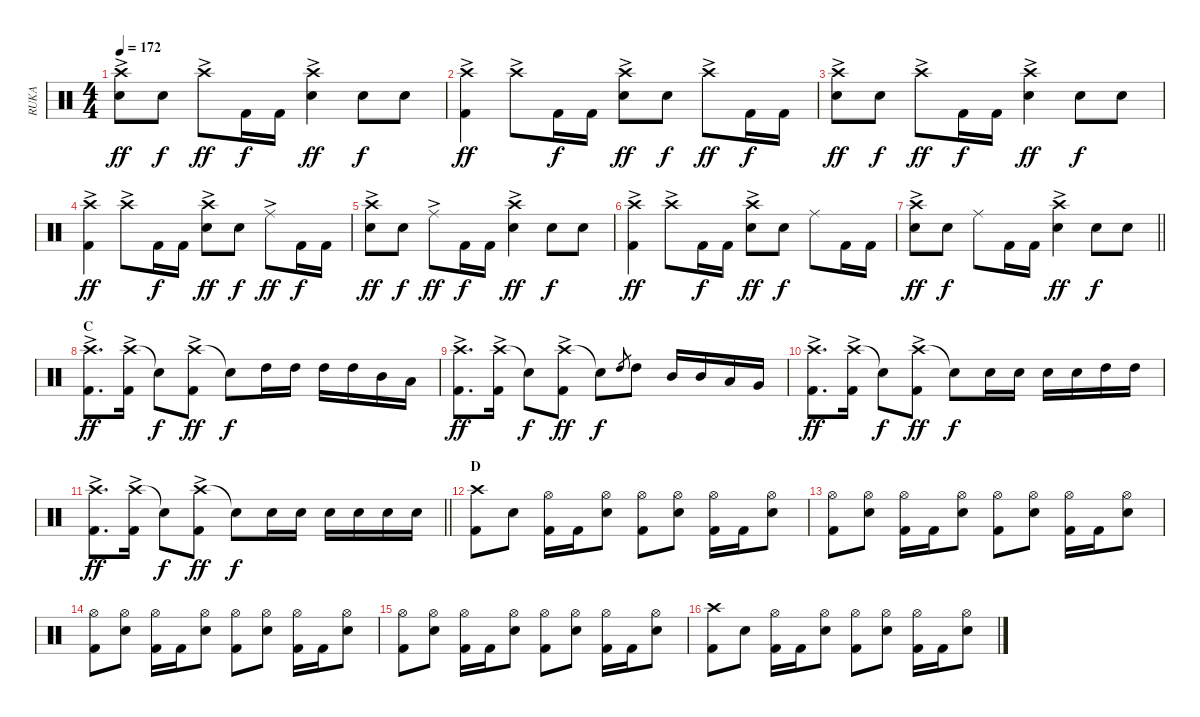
\track ("RUKA" "RUKA") {instrument percussion}
\staff {score}
\articulation defaults
\ts (4 4)
\tempo 172
\clef neutral
\ks c
("Crash high (hit)"{ac} "Snare (hit) 2").8{dy ff} "Snare (hit) 2".8{dy f} "Crash high (hit)"{ac}.8{dy ff} "Kick (hit) 2".16{dy f} "Kick (hit) 2".16 ("Crash high (hit)"{ac} "Snare (hit) 2").4{dy ff} "Snare (hit) 2".8{dy f} "Snare (hit) 2".8 |
("Crash high (hit)"{ac} "Kick (hit) 2").4{dy ff} "Crash high (hit)"{ac}.8 "Kick (hit) 2".16{dy f} "Kick (hit) 2".16 ("Crash high (hit)"{ac} "Snare (hit) 2").8{dy ff} "Snare (hit) 2".8{dy f} "Crash high (hit)"{ac}.8{dy ff} "Kick (hit) 2".16{dy f} "Kick (hit) 2".16 |
("Crash high (hit)"{ac} "Snare (hit) 2").8{dy ff} "Snare (hit) 2".8{dy f} "Crash high (hit)"{ac}.8{dy ff} "Kick (hit) 2".16{dy f} "Kick (hit) 2".16 ("Crash high (hit)"{ac} "Snare (hit) 2").4{dy ff} "Snare (hit) 2".8{dy f} "Snare (hit) 2".8 |
("Crash high (hit)"{ac} "Kick (hit) 2").4{dy ff} "Crash high (hit)"{ac}.8 "Kick (hit) 2".16{dy f} "Kick (hit) 2".16 ("Crash high (hit)"{ac} "Snare (hit) 2").8{dy ff} "Snare (hit) 2".8{dy f} "Ride (middle)"{ac}.8{dy ff} "Kick (hit) 2".16{dy f} "Kick (hit) 2".16 |
("Crash high (hit)"{ac} "Snare (hit) 2").8{dy ff} "Snare (hit) 2".8{dy f} "Ride (middle)"{ac}.8{dy ff} "Kick (hit) 2".16{dy f} "Kick (hit) 2".16 ("Crash high (hit)"{ac} "Snare (hit) 2").4{dy ff} "Snare (hit) 2".8{dy f} "Snare (hit) 2".8 |
("Crash high (hit)"{ac} "Kick (hit) 2").4{dy ff} "Crash high (hit)"{ac}.8 "Kick (hit) 2".16{dy f} "Kick (hit) 2".16 ("Crash high (hit)"{ac} "Snare (hit) 2").8{dy ff} "Snare (hit) 2".8{dy f} "Ride (middle)".8 "Kick (hit) 2".16 "Kick (hit) 2".16 |
\barLineRight lightlight
("Crash high (hit)"{ac} "Snare (hit) 2").8{dy ff} "Snare (hit) 2".8{dy f} "Ride (middle)".8 "Kick (hit) 2".16 "Kick (hit) 2".16 ("Crash high (hit)"{ac} "Snare (hit) 2").4{dy ff} "Snare (hit) 2".8{dy f} "Snare (hit) 2".8 |
\section ("" "C")
("Crash high (hit)"{ac} "Kick (hit) 2").8{d dy ff} ("Crash high (hit)"{ac} "Kick (hit) 2").16 "Snare (hit)"{t}.8{dy f} ("Crash high (hit)"{ac} "Kick (hit) 2").8{dy ff} "Snare (hit)"{t}.8{dy f} "High Tom (hit)".16 "High Tom (hit)".16 "High Tom (hit)".16 "High Tom (hit)".16 "Mid Tom (hit)".16 "Low Tom (hit)".16 |
("Crash high (hit)"{ac} "Kick (hit) 2").8{d dy ff} ("Crash high (hit)"{ac} "Kick (hit) 2").16 "Snare (hit)"{t}.8{dy f} ("Crash high (hit)"{ac} "Kick (hit) 2").8{dy ff} "Snare (hit)"{t}.8{dy f} "High Tom (hit)"{sl}.8{gr} "High Tom (hit)".8 "Mid Tom (hit)".16 "Mid Tom (hit)".16 "Low Tom (hit)".16 "Very Low Tom (hit)".16 |
("Crash high (hit)"{ac} "Kick (hit) 2").8{d dy ff} ("Crash high (hit)"{ac} "Kick (hit) 2").16 "Snare (hit)"{t}.8{dy f} ("Crash high (hit)"{ac} "Kick (hit) 2").8{dy ff} "Snare (hit)"{t}.8{dy f} "Snare (hit) 2".16 "Snare (hit) 2".16 "Snare (hit) 2".16 "Snare (hit) 2".16 "High Tom (hit)".16 "High Tom (hit)".16 |
\barLineRight lightlight
("Crash high (hit)"{ac} "Kick (hit) 2").8{d dy ff} ("Crash high (hit)"{ac} "Kick (hit) 2").16 "Snare (hit)"{t}.8{dy f} ("Crash high (hit)"{ac} "Kick (hit) 2").8{dy ff} "Snare (hit)"{t}.8{dy f} "Snare (hit) 2".16 "Snare (hit) 2".16 "Snare (hit) 2".16 "Snare (hit) 2".16 "Snare (hit) 2".16 "Snare (hit) 2".16 |
\section ("" "D")
("Crash high (hit)" "Kick (hit) 2").8 "Snare (hit) 2".8 ("Hi-Hat (open)" "Kick (hit) 2").16 "Kick (hit) 2".16 ("Hi-Hat (open)" "Snare (hit) 2").8 ("Hi-Hat (open)" "Kick (hit) 2").8 ("Hi-Hat (open)" "Snare (hit) 2").8 ("Hi-Hat (open)" "Kick (hit) 2").16 "Kick (hit) 2".16 ("Hi-Hat (open)" "Snare (hit) 2").8 |
("Hi-Hat (open)" "Kick (hit) 2").8 ("Hi-Hat (open)" "Snare (hit) 2").8 ("Hi-Hat (open)" "Kick (hit) 2").16 "Kick (hit) 2".16 ("Hi-Hat (open)" "Snare (hit) 2").8 ("Hi-Hat (open)" "Kick (hit) 2").8 ("Hi-Hat (open)" "Snare (hit) 2").8 ("Hi-Hat (open)" "Kick (hit) 2").16 "Kick (hit) 2".16 ("Hi-Hat (open)" "Snare (hit) 2").8 |
("Hi-Hat (open)" "Kick (hit) 2").8 ("Hi-Hat (open)" "Snare (hit) 2").8 ("Hi-Hat (open)" "Kick (hit) 2").16 "Kick (hit) 2".16 ("Hi-Hat (open)" "Snare (hit) 2").8 ("Hi-Hat (open)" "Kick (hit) 2").8 ("Hi-Hat (open)" "Snare (hit) 2").8 ("Hi-Hat (open)" "Kick (hit) 2").16 "Kick (hit) 2".16 ("Hi-Hat (open)" "Snare (hit) 2").8 |
("Hi-Hat (open)" "Kick (hit) 2").8 ("Hi-Hat (open)" "Snare (hit) 2").8 ("Hi-Hat (open)" "Kick (hit) 2").16 "Kick (hit) 2".16 ("Hi-Hat (open)" "Snare (hit) 2").8 ("Hi-Hat (open)" "Kick (hit) 2").8 ("Hi-Hat (open)" "Snare (hit) 2").8 ("Hi-Hat (open)" "Kick (hit) 2").16 "Kick (hit) 2".16 ("Hi-Hat (open)" "Snare (hit) 2").8 |
("Crash high (hit)" "Kick (hit) 2").8 "Snare (hit) 2".8 ("Hi-Hat (open)" "Kick (hit) 2").16 "Kick (hit) 2".16 ("Hi-Hat (open)" "Snare (hit) 2").8 ("Hi-Hat (open)" "Kick (hit) 2").8 ("Hi-Hat (open)" "Snare (hit) 2").8 ("Hi-Hat (open)" "Kick (hit) 2").16 "Kick (hit) 2".16 ("Hi-Hat (open)" "Snare (hit) 2").8
